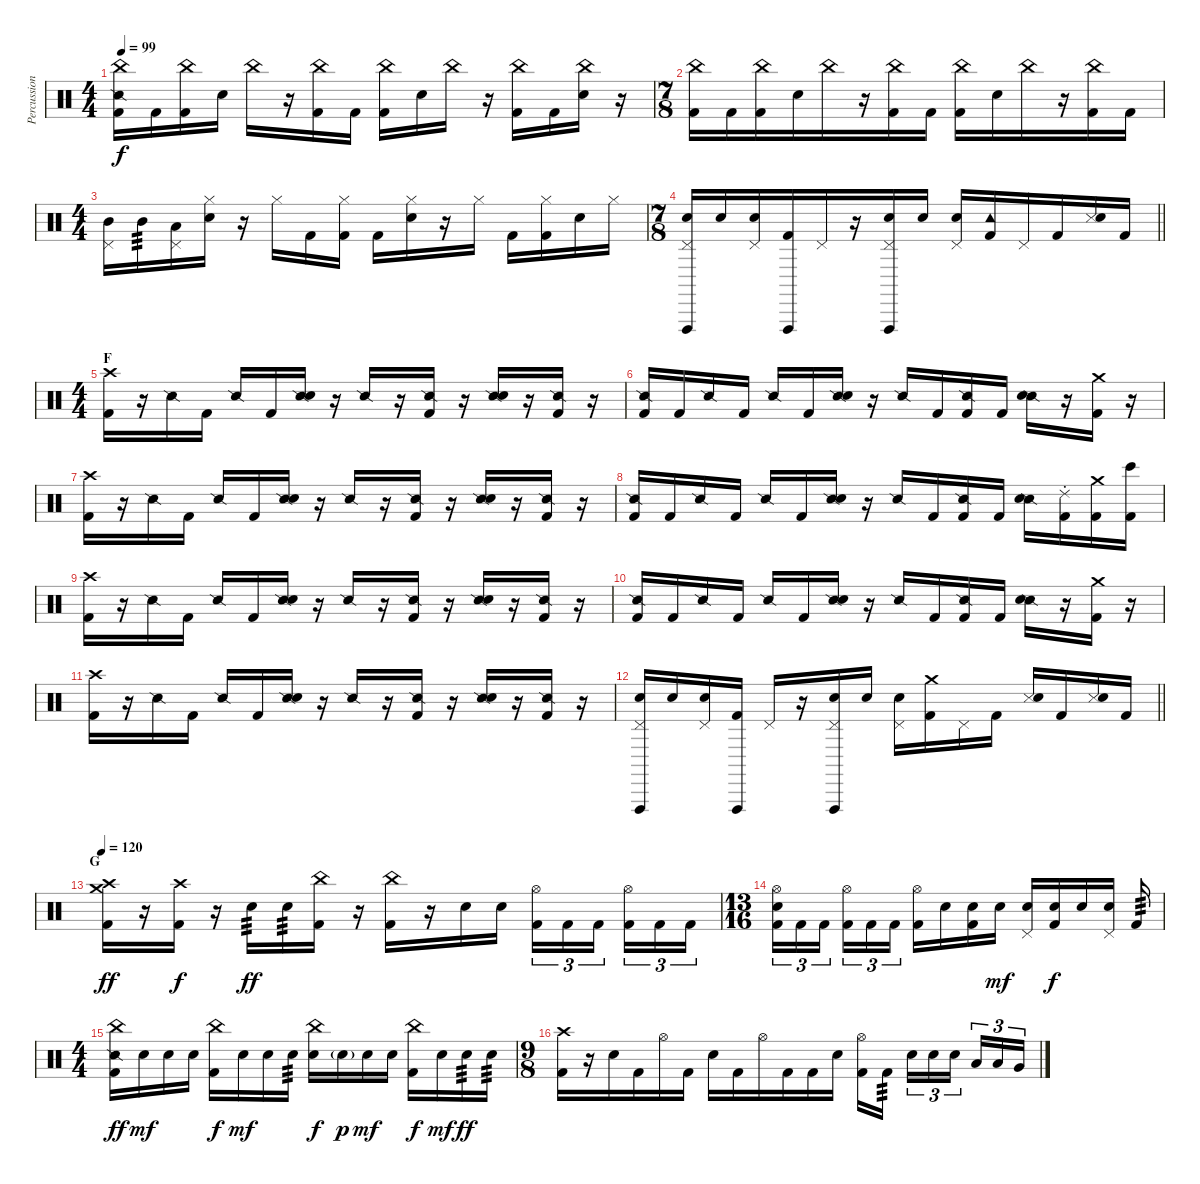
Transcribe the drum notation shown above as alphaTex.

\track ("Percussion" "Percussion") {instrument percussion}
\staff {score}
\articulation defaults
\ts (4 4)
\tempo 99
\clef neutral
\ks c
("China (hit)" "Snare (side stick) 2" "Kick (hit) 2").16{dy f} "Kick (hit) 2".16 ("China (hit)" "Kick (hit) 2").16 "Snare (hit) 2".16 "China (hit)".16 r.16 ("China (hit)" "Kick (hit) 2").16 "Kick (hit) 2".16 ("China (hit)" "Kick (hit) 2").16 "Snare (hit) 2".16 "China (hit)".16 r.16 ("China (hit)" "Kick (hit) 2").16 "Kick (hit) 2".16 ("China (hit)" "Snare (hit) 2").16 r.16 |
\ts (7 8)
("China (hit)" "Kick (hit) 2").16 "Kick (hit) 2".16 ("China (hit)" "Kick (hit) 2").16 "Snare (hit) 2".16 "China (hit)".16 r.16 ("China (hit)" "Kick (hit) 2").16 "Kick (hit) 2".16 ("China (hit)" "Kick (hit) 2").16 "Snare (hit) 2".16 "China (hit)".16 r.16 ("China (hit)" "Kick (hit) 2").16 "Kick (hit) 2".16 |
\ts (4 4)
("Pedal Hi-Hat (hit)" "Mid Tom (hit)").16 "Mid Tom (hit)".16{tp 3} ("Pedal Hi-Hat (hit)" "Low Tom (hit)").16 ("Hi-Hat (closed)" "Snare (hit) 2").16 r.16 "Hi-Hat (closed)".16 "Kick (hit) 2".16 ("Hi-Hat (closed)" "Kick (hit) 2").16 "Kick (hit) 2".16 ("Hi-Hat (closed)" "Snare (hit) 2").16 r.16 "Hi-Hat (closed)".16 "Kick (hit) 2".16 ("Hi-Hat (closed)" "Kick (hit) 2").16 "Snare (hit) 2".16 "Hi-Hat (closed)".16 |
\ts (7 8)
\barLineRight lightlight
("Vibraslap (hit)" "Pedal Hi-Hat (hit)" "Snare (hit) 2").16 "Snare (hit) 2".16 ("Pedal Hi-Hat (hit)" "Snare (hit) 2").16 ("Vibraslap (hit)" "Kick (hit) 2").16 "Pedal Hi-Hat (hit)".16 r.16 ("Vibraslap (hit)" "Pedal Hi-Hat (hit)" "Snare (hit) 2").16 "Snare (hit) 2".16 ("Pedal Hi-Hat (hit)" "Snare (hit) 2").16 ("Tambourine (hit)" "Kick (hit) 2").16 "Pedal Hi-Hat (hit)".16 "Kick (hit) 2".16 ("Metronome (hit)" "Snare (hit) 2").16{bu 120} "Kick (hit) 2".16 |
\ts (4 4)
\section ("" "F")
("Crash high (hit)" "Kick (hit) 2").16 r.16 "Snare (side stick) 2".16 "Kick (hit) 2".16 "Snare (side stick) 2".16 "Kick (hit) 2".16 ("Snare (side stick) 2" "Snare (hit) 2").16 r.16 "Snare (side stick) 2".16 r.16 ("Snare (side stick) 2" "Kick (hit) 2").16 r.16 ("Snare (side stick) 2" "Snare (hit) 2").16 r.16 ("Snare (side stick) 2" "Kick (hit) 2").16 r.16 |
("Snare (side stick) 2" "Kick (hit) 2").16 "Kick (hit) 2".16 "Snare (side stick) 2".16 "Kick (hit) 2".16 "Snare (side stick) 2".16 "Kick (hit) 2".16 ("Snare (side stick) 2" "Snare (hit) 2").16 r.16 "Snare (side stick) 2".16 "Kick (hit) 2".16 ("Snare (side stick) 2" "Kick (hit) 2").16 "Kick (hit) 2".16 ("Snare (side stick) 2" "Snare (hit) 2").16 r.16 ("Crash medium (hit)" "Kick (hit) 2").16 r.16 |
("Crash high (hit)" "Kick (hit) 2").16 r.16 "Snare (side stick) 2".16 "Kick (hit) 2".16 "Snare (side stick) 2".16 "Kick (hit) 2".16 ("Snare (side stick) 2" "Snare (hit) 2").16 r.16 "Snare (side stick) 2".16 r.16 ("Snare (side stick) 2" "Kick (hit) 2").16 r.16 ("Snare (side stick) 2" "Snare (hit) 2").16 r.16 ("Snare (side stick) 2" "Kick (hit) 2").16 r.16 |
("Snare (side stick) 2" "Kick (hit) 2").16 "Kick (hit) 2".16 "Snare (side stick) 2".16 "Kick (hit) 2".16 "Snare (side stick) 2".16 "Kick (hit) 2".16 ("Snare (side stick) 2" "Snare (hit) 2").16 r.16 "Snare (side stick) 2".16 "Kick (hit) 2".16 ("Snare (side stick) 2" "Kick (hit) 2").16 "Kick (hit) 2".16 ("Snare (side stick) 2" "Snare (hit) 2").16 ("Ride (choke) 2" "Kick (hit) 2").16 ("Crash medium (hit)" "Kick (hit) 2").16 ("Bongo High (hit)" "Kick (hit) 2").16 |
("Crash high (hit)" "Kick (hit) 2").16 r.16 "Snare (side stick) 2".16 "Kick (hit) 2".16 "Snare (side stick) 2".16 "Kick (hit) 2".16 ("Snare (side stick) 2" "Snare (hit) 2").16 r.16 "Snare (side stick) 2".16 r.16 ("Snare (side stick) 2" "Kick (hit) 2").16 r.16 ("Snare (side stick) 2" "Snare (hit) 2").16 r.16 ("Snare (side stick) 2" "Kick (hit) 2").16 r.16 |
("Snare (side stick) 2" "Kick (hit) 2").16 "Kick (hit) 2".16 "Snare (side stick) 2".16 "Kick (hit) 2".16 "Snare (side stick) 2".16 "Kick (hit) 2".16 ("Snare (side stick) 2" "Snare (hit) 2").16 r.16 "Snare (side stick) 2".16 "Kick (hit) 2".16 ("Snare (side stick) 2" "Kick (hit) 2").16 "Kick (hit) 2".16 ("Snare (side stick) 2" "Snare (hit) 2").16 r.16 ("Crash medium (hit)" "Kick (hit) 2").16 r.16 |
("Crash high (hit)" "Kick (hit) 2").16 r.16 "Snare (side stick) 2".16 "Kick (hit) 2".16 "Snare (side stick) 2".16 "Kick (hit) 2".16 ("Snare (side stick) 2" "Snare (hit) 2").16 r.16 "Snare (side stick) 2".16 r.16 ("Snare (side stick) 2" "Kick (hit) 2").16 r.16 ("Snare (side stick) 2" "Snare (hit) 2").16 r.16 ("Snare (side stick) 2" "Kick (hit) 2").16 r.16 |
\barLineRight lightlight
("Vibraslap (hit)" "Pedal Hi-Hat (hit)" "Snare (hit) 2").16 "Snare (hit) 2".16 ("Pedal Hi-Hat (hit)" "Snare (hit) 2").16 ("Vibraslap (hit)" "Kick (hit) 2").16 "Pedal Hi-Hat (hit)".16 r.16 ("Vibraslap (hit)" "Pedal Hi-Hat (hit)" "Snare (hit) 2").16 "Snare (hit) 2".16 ("Pedal Hi-Hat (hit)" "Snare (hit) 2").16 ("Crash medium (hit)" "Kick (hit) 2").16 "Pedal Hi-Hat (hit)".16 "Kick (hit) 2".16 ("Metronome (hit)" "Snare (hit) 2").16{bu 120} "Kick (hit) 2".16 ("Metronome (hit)" "Snare (hit) 2").16{bu 120} "Kick (hit) 2".16 |
\section ("" "G")
\tempo 120
("Crash high (hit)" "Crash medium (hit)" "Kick (hit) 2").16{dy ff} r.16 ("Crash high (hit)" "Kick (hit) 2").16{dy f} r.16 "Snare (hit) 2".16{tp 3 dy ff} "Snare (hit) 2".16{tp 3} ("China (hit)" "Kick (hit) 2").16 r.16 ("China (hit)" "Kick (hit) 2").16 r.16 "Snare (hit) 2".16 "Snare (hit) 2".16 ("Hi-Hat (open)" "Kick (hit) 2").16{tu (3 2)} "Kick (hit) 2".16{tu (3 2)} "Kick (hit) 2".16{tu (3 2) beam splitsecondary} ("Hi-Hat (open)" "Kick (hit) 2").16{tu (3 2)} "Kick (hit) 2".16{tu (3 2)} "Kick (hit) 2".16{tu (3 2)} |
\ts (13 16)
("Hi-Hat (open)" "Snare (hit) 2" "Kick (hit) 2").16{tu (3 2)} "Kick (hit) 2".16{tu (3 2)} "Kick (hit) 2".16{tu (3 2)} ("Hi-Hat (open)" "Kick (hit) 2").16{tu (3 2)} "Kick (hit) 2".16{tu (3 2)} "Kick (hit) 2".16{tu (3 2)} ("Hi-Hat (open)" "Kick (hit) 2").16 "Snare (hit) 2".16 ("Snare (hit)" "Kick (hit) 2").16 "Snare (hit) 2".16{dy mf} ("Pedal Hi-Hat (hit)" "Snare (hit) 2").16 ("Snare (hit)" "Kick (hit) 2").16{dy f} "Snare (hit) 2".16 ("Pedal Hi-Hat (hit)" "Snare (hit) 2").16 "Kick (hit) 2".16{tp 3} |
\ts (4 4)
("China (hit)" "Snare (side stick) 2" "Kick (hit) 2").16{dy ff} "Snare (hit) 2".16{dy mf} "Snare (hit) 2".16 "Snare (hit) 2".16 ("China (hit)" "Kick (hit) 2").16{dy f} "Snare (hit) 2".16{dy mf} "Snare (hit) 2".16 "Snare (hit) 2".16{tp 3} ("China (hit)" "Snare (hit) 2").16{dy f} "Snare (hit) 2"{g}.16{dy p} "Snare (hit) 2".16{dy mf} "Snare (hit) 2".16 ("China (hit)" "Kick (hit) 2").16{dy f} "Snare (hit) 2".16{dy mf} "Snare (hit) 2".16{tp 3 dy ff} "Snare (hit) 2".16{tp 3} |
\ts (9 8)
("Crash high (hit)" "Kick (hit) 2").16 r.16 "Snare (hit) 2".16 "Kick (hit) 2".16 "Hi-Hat (open)".16 "Kick (hit) 2".16 "Snare (hit) 2".16 "Kick (hit) 2".16 "Hi-Hat (open)".16 "Kick (hit) 2".16 "Kick (hit) 2".16 "Snare (hit) 2".16 ("Hi-Hat (open)" "Kick (hit) 2").16 "Kick (hit) 2".16{tp 3 beam splitsecondary} "Snare (hit) 2".16{tu (3 2)} "Snare (hit) 2".16{tu (3 2)} "Snare (hit) 2".16{tu (3 2) beam splitsecondary} "Low Tom (hit)".16{tu (3 2)} "Low Tom (hit)".16{tu (3 2)} "Very Low Tom (hit)".16{tu (3 2)}
